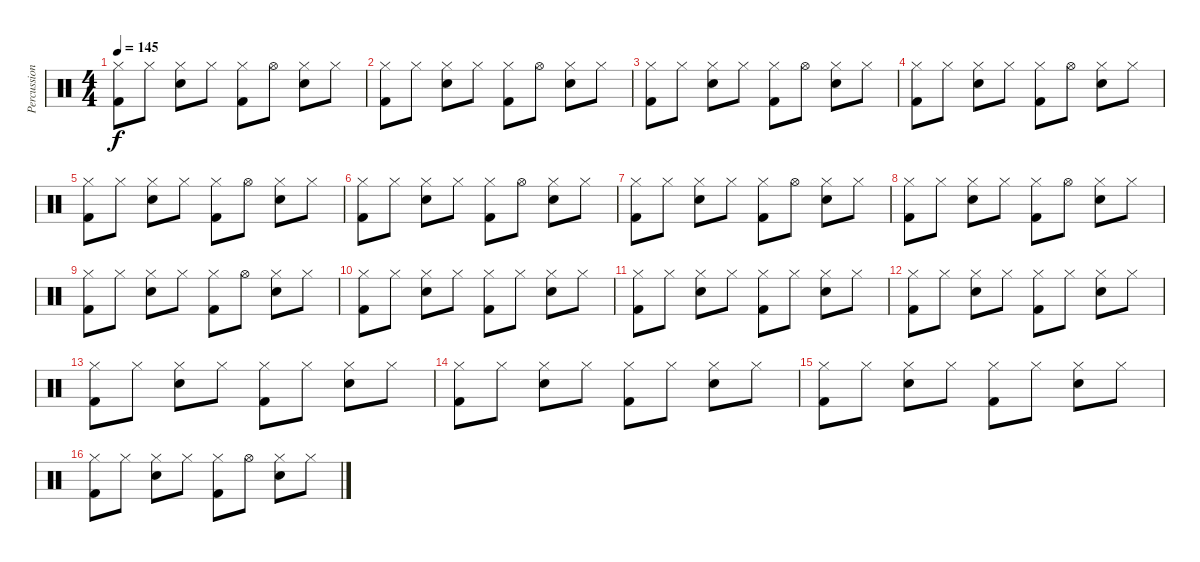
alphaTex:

\track ("Percussion" "Percussion") {instrument percussion}
\staff {score}
\articulation defaults
\ts (4 4)
\tempo 145
\clef neutral
\ks c
("Hi-Hat (closed)" "Kick (hit) 2").8{dy f} "Hi-Hat (closed)".8 ("Hi-Hat (closed)" "Snare (hit) 2").8 "Hi-Hat (closed)".8 ("Hi-Hat (closed)" "Kick (hit) 2").8 "Hi-Hat (open)".8 ("Hi-Hat (closed)" "Snare (hit) 2").8 "Hi-Hat (closed)".8 |
("Hi-Hat (closed)" "Kick (hit) 2").8 "Hi-Hat (closed)".8 ("Hi-Hat (closed)" "Snare (hit) 2").8 "Hi-Hat (closed)".8 ("Hi-Hat (closed)" "Kick (hit) 2").8 "Hi-Hat (open)".8 ("Hi-Hat (closed)" "Snare (hit) 2").8 "Hi-Hat (closed)".8 |
("Hi-Hat (closed)" "Kick (hit) 2").8 "Hi-Hat (closed)".8 ("Hi-Hat (closed)" "Snare (hit) 2").8 "Hi-Hat (closed)".8 ("Hi-Hat (closed)" "Kick (hit) 2").8 "Hi-Hat (open)".8 ("Hi-Hat (closed)" "Snare (hit) 2").8 "Hi-Hat (closed)".8 |
("Hi-Hat (closed)" "Kick (hit) 2").8 "Hi-Hat (closed)".8 ("Hi-Hat (closed)" "Snare (hit) 2").8 "Hi-Hat (closed)".8 ("Hi-Hat (closed)" "Kick (hit) 2").8 "Hi-Hat (open)".8 ("Hi-Hat (closed)" "Snare (hit) 2").8 "Hi-Hat (closed)".8 |
("Hi-Hat (closed)" "Kick (hit) 2").8 "Hi-Hat (closed)".8 ("Hi-Hat (closed)" "Snare (hit) 2").8 "Hi-Hat (closed)".8 ("Hi-Hat (closed)" "Kick (hit) 2").8 "Hi-Hat (open)".8 ("Hi-Hat (closed)" "Snare (hit) 2").8 "Hi-Hat (closed)".8 |
("Hi-Hat (closed)" "Kick (hit) 2").8 "Hi-Hat (closed)".8 ("Hi-Hat (closed)" "Snare (hit) 2").8 "Hi-Hat (closed)".8 ("Hi-Hat (closed)" "Kick (hit) 2").8 "Hi-Hat (open)".8 ("Hi-Hat (closed)" "Snare (hit) 2").8 "Hi-Hat (closed)".8 |
("Hi-Hat (closed)" "Kick (hit) 2").8 "Hi-Hat (closed)".8 ("Hi-Hat (closed)" "Snare (hit) 2").8 "Hi-Hat (closed)".8 ("Hi-Hat (closed)" "Kick (hit) 2").8 "Hi-Hat (open)".8 ("Hi-Hat (closed)" "Snare (hit) 2").8 "Hi-Hat (closed)".8 |
("Hi-Hat (closed)" "Kick (hit) 2").8 "Hi-Hat (closed)".8 ("Hi-Hat (closed)" "Snare (hit) 2").8 "Hi-Hat (closed)".8 ("Hi-Hat (closed)" "Kick (hit) 2").8 "Hi-Hat (open)".8 ("Hi-Hat (closed)" "Snare (hit) 2").8 "Hi-Hat (closed)".8 |
("Hi-Hat (closed)" "Kick (hit) 2").8 "Hi-Hat (closed)".8 ("Hi-Hat (closed)" "Snare (hit) 2").8 "Hi-Hat (closed)".8 ("Hi-Hat (closed)" "Kick (hit) 2").8 "Hi-Hat (open)".8 ("Hi-Hat (closed)" "Snare (hit) 2").8 "Hi-Hat (closed)".8 |
("Hi-Hat (closed)" "Kick (hit) 2").8 "Hi-Hat (closed)".8 ("Hi-Hat (closed)" "Snare (hit) 2").8 "Hi-Hat (closed)".8 ("Hi-Hat (closed)" "Kick (hit) 2").8 "Hi-Hat (closed)".8 ("Hi-Hat (closed)" "Snare (hit) 2").8 "Hi-Hat (closed)".8 |
("Hi-Hat (closed)" "Kick (hit) 2").8 "Hi-Hat (closed)".8 ("Hi-Hat (closed)" "Snare (hit) 2").8 "Hi-Hat (closed)".8 ("Hi-Hat (closed)" "Kick (hit) 2").8 "Hi-Hat (closed)".8 ("Hi-Hat (closed)" "Snare (hit) 2").8 "Hi-Hat (closed)".8 |
("Hi-Hat (closed)" "Kick (hit) 2").8 "Hi-Hat (closed)".8 ("Hi-Hat (closed)" "Snare (hit) 2").8 "Hi-Hat (closed)".8 ("Hi-Hat (closed)" "Kick (hit) 2").8 "Hi-Hat (closed)".8 ("Hi-Hat (closed)" "Snare (hit) 2").8 "Hi-Hat (closed)".8 |
("Hi-Hat (closed)" "Kick (hit) 2").8 "Hi-Hat (closed)".8 ("Hi-Hat (closed)" "Snare (hit) 2").8 "Hi-Hat (closed)".8 ("Hi-Hat (closed)" "Kick (hit) 2").8 "Hi-Hat (closed)".8 ("Hi-Hat (closed)" "Snare (hit) 2").8 "Hi-Hat (closed)".8 |
("Hi-Hat (closed)" "Kick (hit) 2").8 "Hi-Hat (closed)".8 ("Hi-Hat (closed)" "Snare (hit) 2").8 "Hi-Hat (closed)".8 ("Hi-Hat (closed)" "Kick (hit) 2").8 "Hi-Hat (closed)".8 ("Hi-Hat (closed)" "Snare (hit) 2").8 "Hi-Hat (closed)".8 |
("Hi-Hat (closed)" "Kick (hit) 2").8 "Hi-Hat (closed)".8 ("Hi-Hat (closed)" "Snare (hit) 2").8 "Hi-Hat (closed)".8 ("Hi-Hat (closed)" "Kick (hit) 2").8 "Hi-Hat (closed)".8 ("Hi-Hat (closed)" "Snare (hit) 2").8 "Hi-Hat (closed)".8 |
("Hi-Hat (closed)" "Kick (hit) 2").8 "Hi-Hat (closed)".8 ("Hi-Hat (closed)" "Snare (hit) 2").8 "Hi-Hat (closed)".8 ("Hi-Hat (closed)" "Kick (hit) 2").8 "Hi-Hat (open)".8 ("Hi-Hat (closed)" "Snare (hit) 2").8 "Hi-Hat (closed)".8
